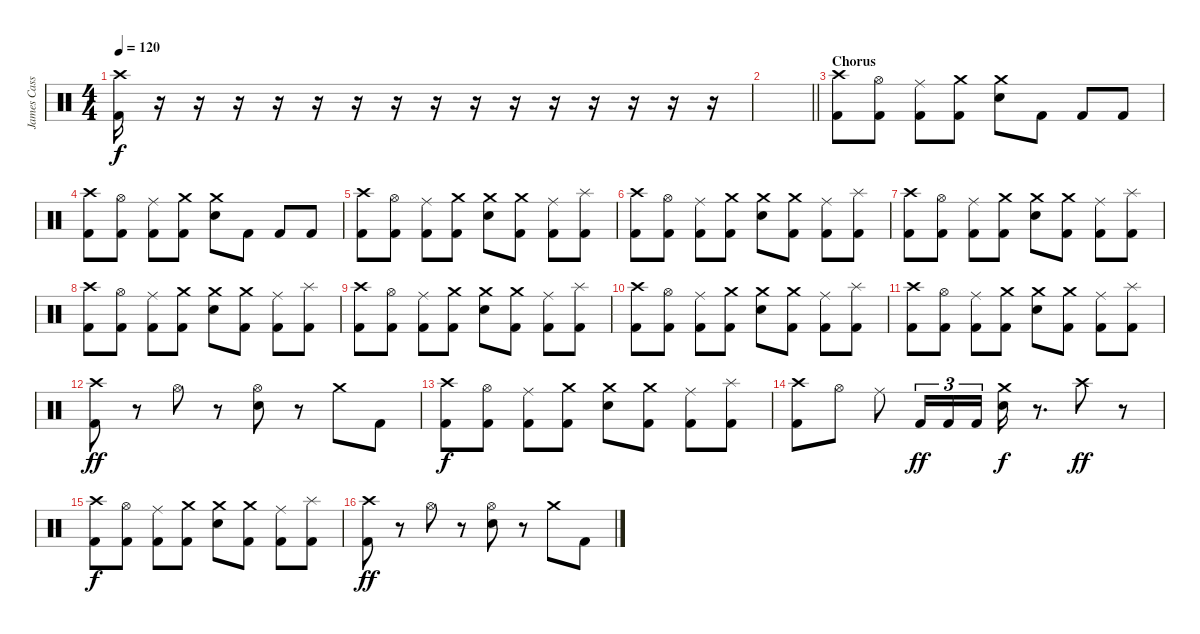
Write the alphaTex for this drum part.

\track ("James Cassels" "James Cass") {instrument percussion}
\staff {score}
\articulation defaults
\ts (4 4)
\tempo 120
\clef neutral
\ks c
("Crash high (hit)" "Kick (hit) 2").16{dy f} r.16 r.16 r.16 r.16 r.16 r.16 r.16 r.16 r.16 r.16 r.16 r.16 r.16 r.16 r.16 |
\barLineRight lightlight
|
\section ("" "Chorus")
("Crash high (hit)" "Kick (hit) 2").8 ("Hi-Hat (open)" "Kick (hit) 2").8 ("Ride (middle)" "Kick (hit) 2").8 ("Crash medium (hit)" "Kick (hit) 2").8 ("Crash medium (hit)" "Electric Snare (hit)").8 "Kick (hit) 2".8 "Kick (hit) 2".8 "Kick (hit) 2".8 |
("Crash high (hit)" "Kick (hit) 2").8 ("Hi-Hat (open)" "Kick (hit) 2").8 ("Ride (middle)" "Kick (hit) 2").8 ("Crash medium (hit)" "Kick (hit) 2").8 ("Crash medium (hit)" "Electric Snare (hit)").8 "Kick (hit) 2".8 "Kick (hit) 2".8 "Kick (hit) 2".8 |
("Crash high (hit)" "Kick (hit) 2").8 ("Hi-Hat (open)" "Kick (hit) 2").8 ("Ride (middle)" "Kick (hit) 2").8 ("Crash medium (hit)" "Kick (hit) 2").8 ("Crash medium (hit)" "Electric Snare (hit)").8 ("Crash medium (hit)" "Kick (hit) 2").8 ("Ride (middle)" "Kick (hit) 2").8 ("Splash (hit)" "Kick (hit) 2").8 |
("Crash high (hit)" "Kick (hit) 2").8 ("Hi-Hat (open)" "Kick (hit) 2").8 ("Ride (middle)" "Kick (hit) 2").8 ("Crash medium (hit)" "Kick (hit) 2").8 ("Crash medium (hit)" "Electric Snare (hit)").8 ("Crash medium (hit)" "Kick (hit) 2").8 ("Ride (middle)" "Kick (hit) 2").8 ("Splash (hit)" "Kick (hit) 2").8 |
("Crash high (hit)" "Kick (hit) 2").8 ("Hi-Hat (open)" "Kick (hit) 2").8 ("Ride (middle)" "Kick (hit) 2").8 ("Crash medium (hit)" "Kick (hit) 2").8 ("Crash medium (hit)" "Electric Snare (hit)").8 ("Crash medium (hit)" "Kick (hit) 2").8 ("Ride (middle)" "Kick (hit) 2").8 ("Splash (hit)" "Kick (hit) 2").8 |
("Crash high (hit)" "Kick (hit) 2").8 ("Hi-Hat (open)" "Kick (hit) 2").8 ("Ride (middle)" "Kick (hit) 2").8 ("Crash medium (hit)" "Kick (hit) 2").8 ("Crash medium (hit)" "Electric Snare (hit)").8 ("Crash medium (hit)" "Kick (hit) 2").8 ("Ride (middle)" "Kick (hit) 2").8 ("Splash (hit)" "Kick (hit) 2").8 |
("Crash high (hit)" "Kick (hit) 2").8 ("Hi-Hat (open)" "Kick (hit) 2").8 ("Ride (middle)" "Kick (hit) 2").8 ("Crash medium (hit)" "Kick (hit) 2").8 ("Crash medium (hit)" "Electric Snare (hit)").8 ("Crash medium (hit)" "Kick (hit) 2").8 ("Ride (middle)" "Kick (hit) 2").8 ("Splash (hit)" "Kick (hit) 2").8 |
("Crash high (hit)" "Kick (hit) 2").8 ("Hi-Hat (open)" "Kick (hit) 2").8 ("Ride (middle)" "Kick (hit) 2").8 ("Crash medium (hit)" "Kick (hit) 2").8 ("Crash medium (hit)" "Electric Snare (hit)").8 ("Crash medium (hit)" "Kick (hit) 2").8 ("Ride (middle)" "Kick (hit) 2").8 ("Splash (hit)" "Kick (hit) 2").8 |
("Crash high (hit)" "Kick (hit) 2").8 ("Hi-Hat (open)" "Kick (hit) 2").8 ("Ride (middle)" "Kick (hit) 2").8 ("Crash medium (hit)" "Kick (hit) 2").8 ("Crash medium (hit)" "Electric Snare (hit)").8 ("Crash medium (hit)" "Kick (hit) 2").8 ("Ride (middle)" "Kick (hit) 2").8 ("Splash (hit)" "Kick (hit) 2").8 |
("Crash high (hit)" "Kick (hit) 2").8{dy ff} r.8 "Hi-Hat (open)".8 r.8 ("Hi-Hat (open)" "Electric Snare (hit)").8 r.8 "Crash medium (hit)".8 "Kick (hit) 2".8 |
("Crash high (hit)" "Kick (hit) 2").8{dy f} ("Hi-Hat (open)" "Kick (hit) 2").8 ("Ride (middle)" "Kick (hit) 2").8 ("Crash medium (hit)" "Kick (hit) 2").8 ("Crash medium (hit)" "Electric Snare (hit)").8 ("Crash medium (hit)" "Kick (hit) 2").8 ("Ride (middle)" "Kick (hit) 2").8 ("Splash (hit)" "Kick (hit) 2").8 |
("Crash high (hit)" "Kick (hit) 2").8 "Hi-Hat (open)".8 "Ride (middle)".8 "Kick (hit) 2".16{tu (3 2) dy ff} "Kick (hit) 2".16{tu (3 2)} "Kick (hit) 2".16{tu (3 2)} ("Crash medium (hit)" "Electric Snare (hit)").16{dy f} r.8{d} "Crash high (hit)".8{dy ff} r.8 |
("Crash high (hit)" "Kick (hit) 2").8{dy f} ("Hi-Hat (open)" "Kick (hit) 2").8 ("Ride (middle)" "Kick (hit) 2").8 ("Crash medium (hit)" "Kick (hit) 2").8 ("Crash medium (hit)" "Electric Snare (hit)").8 ("Crash medium (hit)" "Kick (hit) 2").8 ("Ride (middle)" "Kick (hit) 2").8 ("Splash (hit)" "Kick (hit) 2").8 |
("Crash high (hit)" "Kick (hit) 2").8{dy ff} r.8 "Hi-Hat (open)".8 r.8 ("Hi-Hat (open)" "Electric Snare (hit)").8 r.8 "Crash medium (hit)".8 "Kick (hit) 2".8
